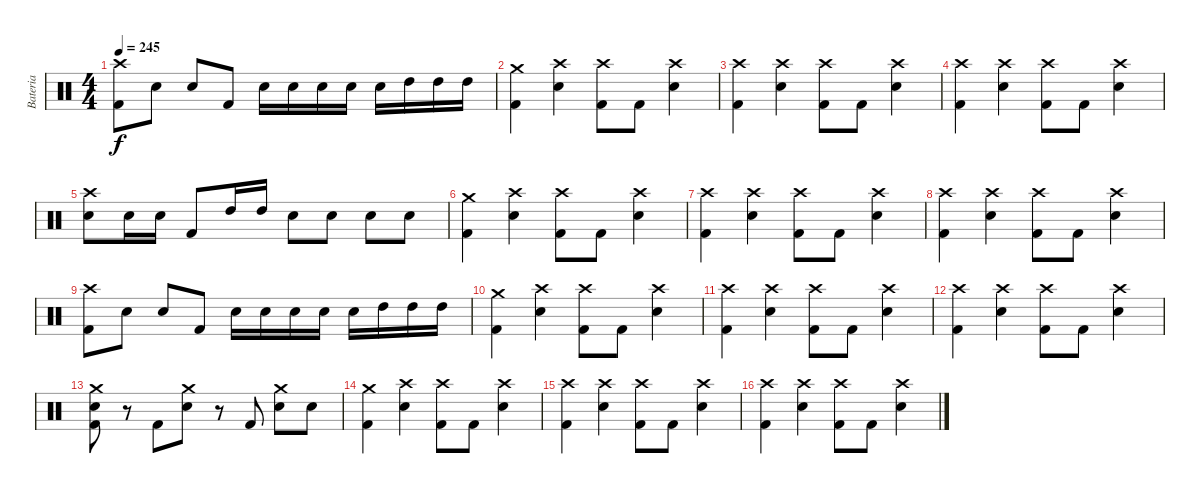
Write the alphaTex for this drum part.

\track ("Bateria" "Bateria") {instrument percussion}
\staff {score}
\articulation defaults
\ts (4 4)
\tempo 245
\clef neutral
\ks c
("Crash high (hit)" "Kick (hit) 2").8{dy f} "Electric Snare (hit)".8 "Electric Snare (hit)".8 "Kick (hit) 2".8 "Electric Snare (hit)".16 "Electric Snare (hit)".16 "Electric Snare (hit)".16 "Electric Snare (hit)".16 "Electric Snare (hit)".16 "High Tom (hit)".16 "High Tom (hit)".16 "High Tom (hit)".16 |
("Crash medium (hit)" "Kick (hit) 2").4 ("Crash high (hit)" "Electric Snare (hit)").4 ("Crash high (hit)" "Kick (hit) 2").8 "Kick (hit) 2".8 ("Crash high (hit)" "Electric Snare (hit)").4 |
("Crash high (hit)" "Kick (hit) 2").4 ("Crash high (hit)" "Electric Snare (hit)").4 ("Crash high (hit)" "Kick (hit) 2").8 "Kick (hit) 2".8 ("Crash high (hit)" "Electric Snare (hit)").4 |
("Crash high (hit)" "Kick (hit) 2").4 ("Crash high (hit)" "Electric Snare (hit)").4 ("Crash high (hit)" "Kick (hit) 2").8 "Kick (hit) 2".8 ("Crash high (hit)" "Electric Snare (hit)").4 |
("Crash high (hit)" "Electric Snare (hit)").8 "Electric Snare (hit)".16 "Electric Snare (hit)".16 "Kick (hit) 2".8 "High Tom (hit)".16 "High Tom (hit)".16 "Electric Snare (hit)".8 "Electric Snare (hit)".8 "Electric Snare (hit)".8 "Electric Snare (hit)".8 |
("Crash medium (hit)" "Kick (hit) 2").4 ("Crash high (hit)" "Electric Snare (hit)").4 ("Crash high (hit)" "Kick (hit) 2").8 "Kick (hit) 2".8 ("Crash high (hit)" "Electric Snare (hit)").4 |
("Crash high (hit)" "Kick (hit) 2").4 ("Crash high (hit)" "Electric Snare (hit)").4 ("Crash high (hit)" "Kick (hit) 2").8 "Kick (hit) 2".8 ("Crash high (hit)" "Electric Snare (hit)").4 |
("Crash high (hit)" "Kick (hit) 2").4 ("Crash high (hit)" "Electric Snare (hit)").4 ("Crash high (hit)" "Kick (hit) 2").8 "Kick (hit) 2".8 ("Crash high (hit)" "Electric Snare (hit)").4 |
("Crash high (hit)" "Kick (hit) 2").8 "Electric Snare (hit)".8 "Electric Snare (hit)".8 "Kick (hit) 2".8 "Electric Snare (hit)".16 "Electric Snare (hit)".16 "Electric Snare (hit)".16 "Electric Snare (hit)".16 "Electric Snare (hit)".16 "High Tom (hit)".16 "High Tom (hit)".16 "High Tom (hit)".16 |
("Crash medium (hit)" "Kick (hit) 2").4 ("Crash high (hit)" "Electric Snare (hit)").4 ("Crash high (hit)" "Kick (hit) 2").8 "Kick (hit) 2".8 ("Crash high (hit)" "Electric Snare (hit)").4 |
("Crash high (hit)" "Kick (hit) 2").4 ("Crash high (hit)" "Electric Snare (hit)").4 ("Crash high (hit)" "Kick (hit) 2").8 "Kick (hit) 2".8 ("Crash high (hit)" "Electric Snare (hit)").4 |
("Crash high (hit)" "Kick (hit) 2").4 ("Crash high (hit)" "Electric Snare (hit)").4 ("Crash high (hit)" "Kick (hit) 2").8 "Kick (hit) 2".8 ("Crash high (hit)" "Electric Snare (hit)").4 |
("Crash medium (hit)" "Electric Snare (hit)" "Kick (hit) 2").8 r.8 "Kick (hit) 2".8 ("Crash medium (hit)" "Electric Snare (hit)").8 r.8 "Kick (hit) 2".8 ("Crash medium (hit)" "Electric Snare (hit)").8 "Electric Snare (hit)".8 |
("Crash medium (hit)" "Kick (hit) 2").4 ("Crash high (hit)" "Electric Snare (hit)").4 ("Crash high (hit)" "Kick (hit) 2").8 "Kick (hit) 2".8 ("Crash high (hit)" "Electric Snare (hit)").4 |
("Crash high (hit)" "Kick (hit) 2").4 ("Crash high (hit)" "Electric Snare (hit)").4 ("Crash high (hit)" "Kick (hit) 2").8 "Kick (hit) 2".8 ("Crash high (hit)" "Electric Snare (hit)").4 |
("Crash high (hit)" "Kick (hit) 2").4 ("Crash high (hit)" "Electric Snare (hit)").4 ("Crash high (hit)" "Kick (hit) 2").8 "Kick (hit) 2".8 ("Crash high (hit)" "Electric Snare (hit)").4
